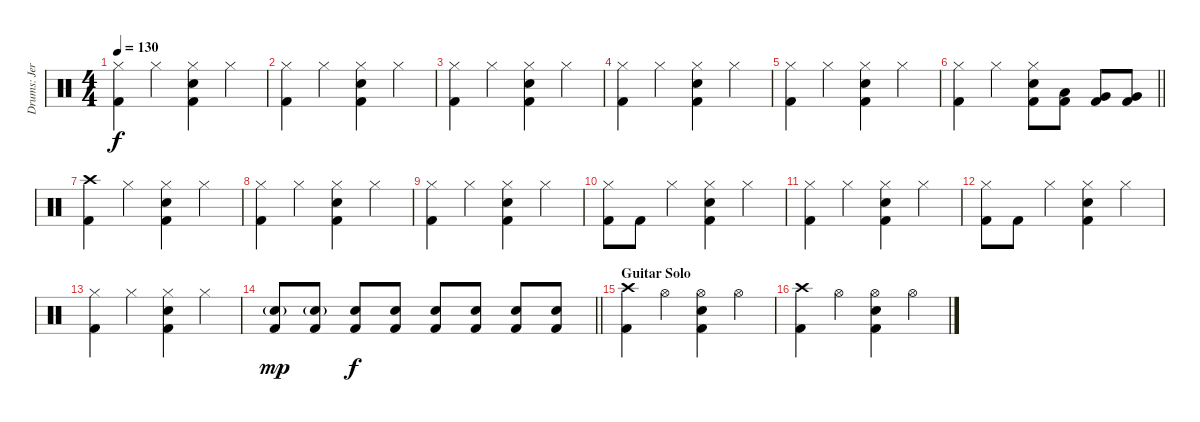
\track ("Drums: Jere Luokkamäki" "Drums: Jer") {instrument percussion}
\staff {score}
\articulation defaults
\ts (4 4)
\tempo 130
\clef neutral
\ks aminor
("Hi-Hat (closed)" "Kick (hit) 2").4{dy f} "Hi-Hat (closed)".4 ("Hi-Hat (closed)" "Electric Snare (hit)" "Kick (hit) 2").4 "Hi-Hat (closed)".4 |
("Hi-Hat (closed)" "Kick (hit) 2").4 "Hi-Hat (closed)".4 ("Hi-Hat (closed)" "Electric Snare (hit)" "Kick (hit) 2").4 "Hi-Hat (closed)".4 |
("Hi-Hat (closed)" "Kick (hit) 2").4 "Hi-Hat (closed)".4 ("Hi-Hat (closed)" "Electric Snare (hit)" "Kick (hit) 2").4 "Hi-Hat (closed)".4 |
("Hi-Hat (closed)" "Kick (hit) 2").4 "Hi-Hat (closed)".4 ("Hi-Hat (closed)" "Electric Snare (hit)" "Kick (hit) 2").4 "Hi-Hat (closed)".4 |
("Hi-Hat (closed)" "Kick (hit) 2").4 "Hi-Hat (closed)".4 ("Hi-Hat (closed)" "Electric Snare (hit)" "Kick (hit) 2").4 "Hi-Hat (closed)".4 |
\barLineRight lightlight
("Hi-Hat (closed)" "Kick (hit) 2").4 "Hi-Hat (closed)".4 ("Hi-Hat (closed)" "Electric Snare (hit)" "Kick (hit) 2").8 ("Low Tom (hit)" "Kick (hit) 2").8 ("Very Low Tom (hit)" "Kick (hit) 2").8 ("Very Low Tom (hit)" "Kick (hit) 2").8 |
("Crash high (hit)" "Kick (hit) 2").4 "Hi-Hat (closed)".4 ("Hi-Hat (closed)" "Electric Snare (hit)" "Kick (hit) 2").4 "Hi-Hat (closed)".4 |
("Hi-Hat (closed)" "Kick (hit) 2").4 "Hi-Hat (closed)".4 ("Hi-Hat (closed)" "Electric Snare (hit)" "Kick (hit) 2").4 "Hi-Hat (closed)".4 |
("Hi-Hat (closed)" "Kick (hit) 2").4 "Hi-Hat (closed)".4 ("Hi-Hat (closed)" "Electric Snare (hit)" "Kick (hit) 2").4 "Hi-Hat (closed)".4 |
("Hi-Hat (closed)" "Kick (hit) 2").8 "Kick (hit) 2".8 "Hi-Hat (closed)".4 ("Hi-Hat (closed)" "Electric Snare (hit)" "Kick (hit) 2").4 "Hi-Hat (closed)".4 |
("Hi-Hat (closed)" "Kick (hit) 2").4 "Hi-Hat (closed)".4 ("Hi-Hat (closed)" "Electric Snare (hit)" "Kick (hit) 2").4 "Hi-Hat (closed)".4 |
("Hi-Hat (closed)" "Kick (hit) 2").8 "Kick (hit) 2".8 "Hi-Hat (closed)".4 ("Hi-Hat (closed)" "Electric Snare (hit)" "Kick (hit) 2").4 "Hi-Hat (closed)".4 |
("Hi-Hat (closed)" "Kick (hit) 2").4 "Hi-Hat (closed)".4 ("Hi-Hat (closed)" "Electric Snare (hit)" "Kick (hit) 2").4 "Hi-Hat (closed)".4 |
\barLineRight lightlight
("Electric Snare (hit)"{g} "Kick (hit) 2").8{dy mp} ("Electric Snare (hit)"{g} "Kick (hit) 2").8 ("Electric Snare (hit)" "Kick (hit) 2").8{dy f} ("Electric Snare (hit)" "Kick (hit) 2").8 ("Electric Snare (hit)" "Kick (hit) 2").8 ("Electric Snare (hit)" "Kick (hit) 2").8 ("Electric Snare (hit)" "Kick (hit) 2").8 ("Electric Snare (hit)" "Kick (hit) 2").8 |
\section ("" "Guitar Solo")
("Crash high (hit)" "Kick (hit) 2").4 "Hi-Hat (open)".4 ("Hi-Hat (open)" "Electric Snare (hit)" "Kick (hit) 2").4 "Hi-Hat (open)".4 |
("Crash high (hit)" "Kick (hit) 2").4 "Hi-Hat (open)".4 ("Hi-Hat (open)" "Electric Snare (hit)" "Kick (hit) 2").4 "Hi-Hat (open)".4
